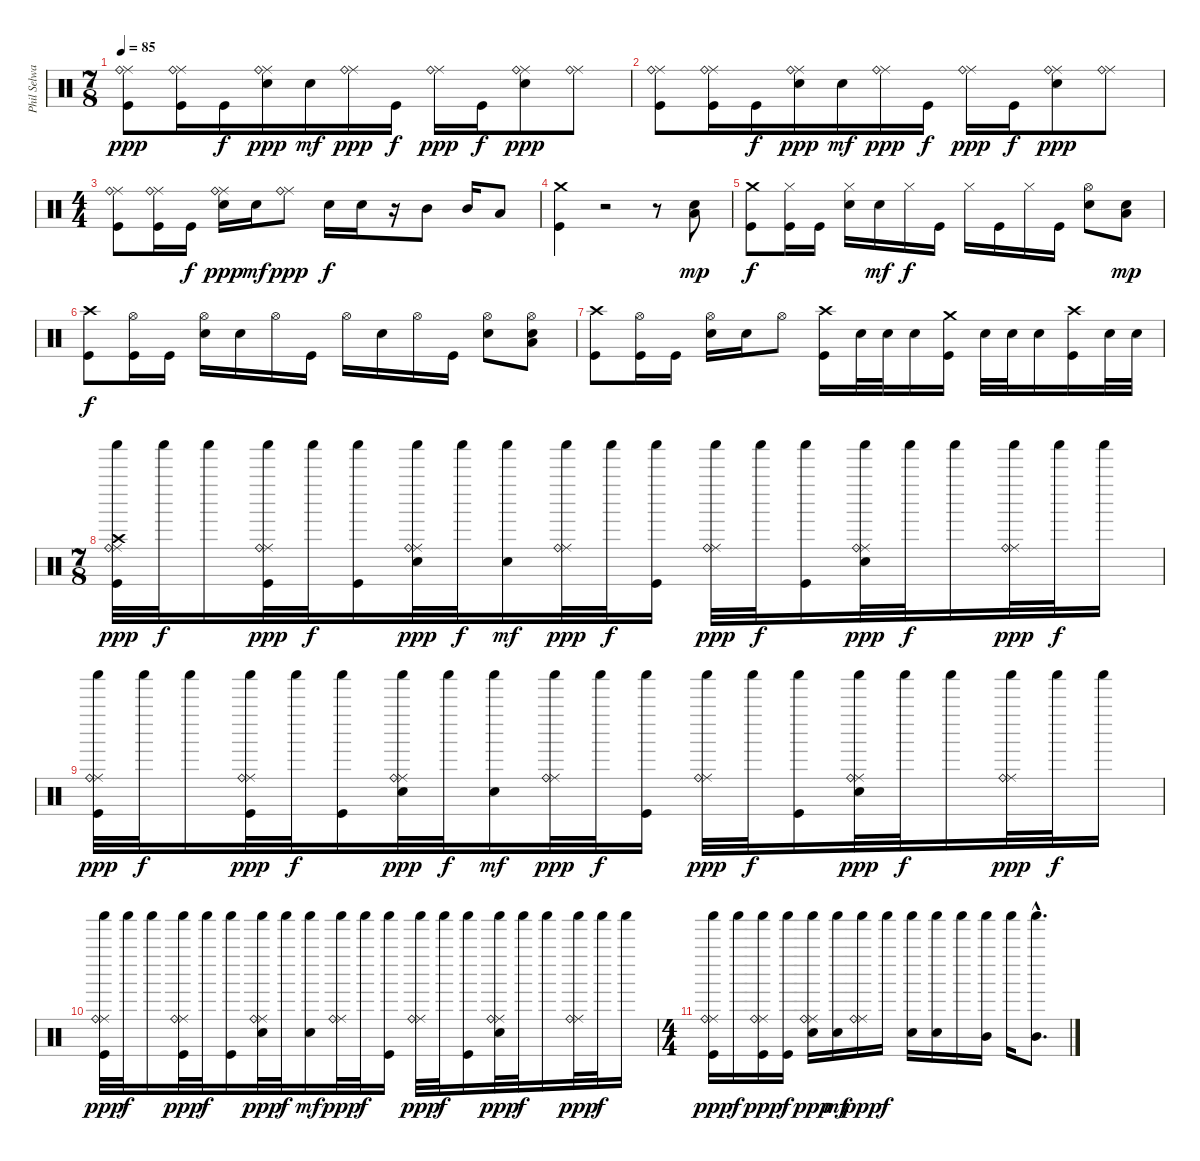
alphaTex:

\track ("Phil Selway" "Phil Selwa") {instrument percussion}
\staff {score}
\articulation defaults
\ts (7 8)
\tempo 85
\clef neutral
\ks c
("Ride (middle)" "Ride (bell)" "Kick (hit)").8{dy ppp} ("Ride (middle)" "Ride (bell)" "Kick (hit)").16 "Kick (hit)".16{dy f} ("Ride (middle)" "Ride (bell)" "Snare (hit) 2").16{dy ppp} "Snare (hit) 2".16{dy mf} ("Ride (middle)" "Ride (bell)").16{dy ppp} "Kick (hit)".16{dy f} ("Ride (middle)" "Ride (bell)").16{dy ppp} "Kick (hit)".16{dy f} ("Ride (middle)" "Ride (bell)" "Snare (hit) 2").8{dy ppp} ("Ride (middle)" "Ride (bell)").8 |
("Ride (middle)" "Ride (bell)" "Kick (hit)").8 ("Ride (middle)" "Ride (bell)" "Kick (hit)").16 "Kick (hit)".16{dy f} ("Ride (middle)" "Ride (bell)" "Snare (hit) 2").16{dy ppp} "Snare (hit) 2".16{dy mf} ("Ride (middle)" "Ride (bell)").16{dy ppp} "Kick (hit)".16{dy f} ("Ride (middle)" "Ride (bell)").16{dy ppp} "Kick (hit)".16{dy f} ("Ride (middle)" "Ride (bell)" "Snare (hit) 2").8{dy ppp} ("Ride (middle)" "Ride (bell)").8 |
\ts (4 4)
("Ride (middle)" "Ride (bell)" "Kick (hit)").8 ("Ride (middle)" "Ride (bell)" "Kick (hit)").16 "Kick (hit)".16{dy f} ("Ride (middle)" "Ride (bell)" "Snare (hit) 2").16{dy ppp} "Snare (hit) 2".16{dy mf} ("Ride (middle)" "Ride (bell)").8{dy ppp} "Snare (hit) 2".16{dy f} "Snare (hit) 2".16 r.16 "Mid Tom (hit)".8 "Mid Tom (hit)".16 "Low Tom (hit)".8 |
("Crash medium (hit)" "Kick (hit)").4 r.2 r.8 ("Snare (hit) 2" "Low Tom (hit)").8{dy mp} |
("Crash medium (hit)" "Kick (hit)").8{dy f} ("Hi-Hat (closed)" "Kick (hit)").16 "Kick (hit)".16 ("Hi-Hat (closed)" "Snare (hit) 2").16 "Snare (hit) 2".16{dy mf} "Hi-Hat (closed)".16{dy f} "Kick (hit)".16 "Hi-Hat (closed)".16 "Kick (hit)".16 "Hi-Hat (closed)".16 "Kick (hit)".16 ("Hi-Hat (open)" "Snare (hit) 2").8 ("Snare (hit) 2" "Low Floor Tom (hit)").8{dy mp} |
("Crash high (hit)" "Kick (hit)").8{dy f} ("Hi-Hat (open)" "Kick (hit)").16 "Kick (hit)".16 ("Hi-Hat (open)" "Snare (hit) 2").16 "Snare (hit) 2".16 "Hi-Hat (open)".16 "Kick (hit)".16 "Hi-Hat (open)".16 "Snare (hit) 2".16 "Hi-Hat (open)".16 "Kick (hit)".16 ("Hi-Hat (open)" "Snare (hit) 2").8 ("Hi-Hat (open)" "Snare (hit) 2" "Low Floor Tom (hit)").8 |
("Crash high (hit)" "Kick (hit)").8 ("Hi-Hat (open)" "Kick (hit)").16 "Kick (hit)".16 ("Hi-Hat (open)" "Snare (hit) 2").16 "Snare (hit) 2".16 "Hi-Hat (open)".8 ("Crash high (hit)" "Kick (hit)").16 "Snare (hit) 2".32 "Snare (hit) 2".32 "Snare (hit) 2".16 ("Crash medium (hit)" "Kick (hit)").16 "Snare (hit) 2".32 "Snare (hit) 2".32 "Snare (hit) 2".16 ("Crash high (hit)" "Kick (hit)").16 "Snare (hit) 2".32 "Snare (hit) 2".32 |
\ts (7 8)
("Ride (middle)" "Ride (bell)" "Crash high (hit)" "Shaker (hit)" "Kick (hit)").32{dy ppp} "Shaker (hit)".32{dy f} "Shaker (hit)".16 ("Ride (middle)" "Ride (bell)" "Shaker (hit)" "Kick (hit)").32{dy ppp} "Shaker (hit)".32{dy f} ("Shaker (hit)" "Kick (hit)").16 ("Ride (middle)" "Ride (bell)" "Snare (hit) 2" "Shaker (hit)").32{dy ppp} "Shaker (hit)".32{dy f} ("Snare (hit) 2" "Shaker (hit)").16{dy mf} ("Ride (middle)" "Ride (bell)" "Shaker (hit)").32{dy ppp} "Shaker (hit)".32{dy f} ("Shaker (hit)" "Kick (hit)").16 ("Ride (middle)" "Ride (bell)" "Shaker (hit)").32{dy ppp} "Shaker (hit)".32{dy f} ("Shaker (hit)" "Kick (hit)").16 ("Ride (middle)" "Ride (bell)" "Snare (hit) 2" "Shaker (hit)").32{dy ppp} "Shaker (hit)".32{dy f} "Shaker (hit)".16 ("Ride (middle)" "Ride (bell)" "Shaker (hit)").32{dy ppp} "Shaker (hit)".32{dy f} "Shaker (hit)".16 |
("Ride (middle)" "Ride (bell)" "Shaker (hit)" "Kick (hit)").32{dy ppp} "Shaker (hit)".32{dy f} "Shaker (hit)".16 ("Ride (middle)" "Ride (bell)" "Shaker (hit)" "Kick (hit)").32{dy ppp} "Shaker (hit)".32{dy f} ("Shaker (hit)" "Kick (hit)").16 ("Ride (middle)" "Ride (bell)" "Snare (hit) 2" "Shaker (hit)").32{dy ppp} "Shaker (hit)".32{dy f} ("Snare (hit) 2" "Shaker (hit)").16{dy mf} ("Ride (middle)" "Ride (bell)" "Shaker (hit)").32{dy ppp} "Shaker (hit)".32{dy f} ("Shaker (hit)" "Kick (hit)").16 ("Ride (middle)" "Ride (bell)" "Shaker (hit)").32{dy ppp} "Shaker (hit)".32{dy f} ("Shaker (hit)" "Kick (hit)").16 ("Ride (middle)" "Ride (bell)" "Snare (hit) 2" "Shaker (hit)").32{dy ppp} "Shaker (hit)".32{dy f} "Shaker (hit)".16 ("Ride (middle)" "Ride (bell)" "Shaker (hit)").32{dy ppp} "Shaker (hit)".32{dy f} "Shaker (hit)".16 |
("Ride (middle)" "Ride (bell)" "Shaker (hit)" "Kick (hit)").32{dy ppp} "Shaker (hit)".32{dy f} "Shaker (hit)".16 ("Ride (middle)" "Ride (bell)" "Shaker (hit)" "Kick (hit)").32{dy ppp} "Shaker (hit)".32{dy f} ("Shaker (hit)" "Kick (hit)").16 ("Ride (middle)" "Ride (bell)" "Snare (hit) 2" "Shaker (hit)").32{dy ppp} "Shaker (hit)".32{dy f} ("Snare (hit) 2" "Shaker (hit)").16{dy mf} ("Ride (middle)" "Ride (bell)" "Shaker (hit)").32{dy ppp} "Shaker (hit)".32{dy f} ("Shaker (hit)" "Kick (hit)").16 ("Ride (middle)" "Ride (bell)" "Shaker (hit)").32{dy ppp} "Shaker (hit)".32{dy f} ("Shaker (hit)" "Kick (hit)").16 ("Ride (middle)" "Ride (bell)" "Snare (hit) 2" "Shaker (hit)").32{dy ppp} "Shaker (hit)".32{dy f} "Shaker (hit)".16 ("Ride (middle)" "Ride (bell)" "Shaker (hit)").32{dy ppp} "Shaker (hit)".32{dy f} "Shaker (hit)".16 |
\ts (4 4)
("Ride (middle)" "Ride (bell)" "Shaker (hit)" "Kick (hit)").16{dy ppp} "Shaker (hit)".16{dy f} ("Ride (middle)" "Ride (bell)" "Shaker (hit)" "Kick (hit)").16{dy ppp} ("Shaker (hit)" "Kick (hit)").16{dy f} ("Ride (middle)" "Ride (bell)" "Shaker (hit)" "Snare (hit) 2").16{dy ppp} ("Shaker (hit)" "Snare (hit) 2").16{dy mf} ("Ride (middle)" "Ride (bell)" "Shaker (hit)").16{dy ppp} "Shaker (hit)".16{dy f} ("Shaker (hit)" "Snare (hit) 2").16 ("Shaker (hit)" "Snare (hit) 2").16 "Shaker (hit)".16 ("Mid Tom (hit)" "Shaker (hit)").16 "Shaker (hit)".16 ("Mid Tom (hit)"{hac} "Shaker (hit)"{hac}).8{d}
